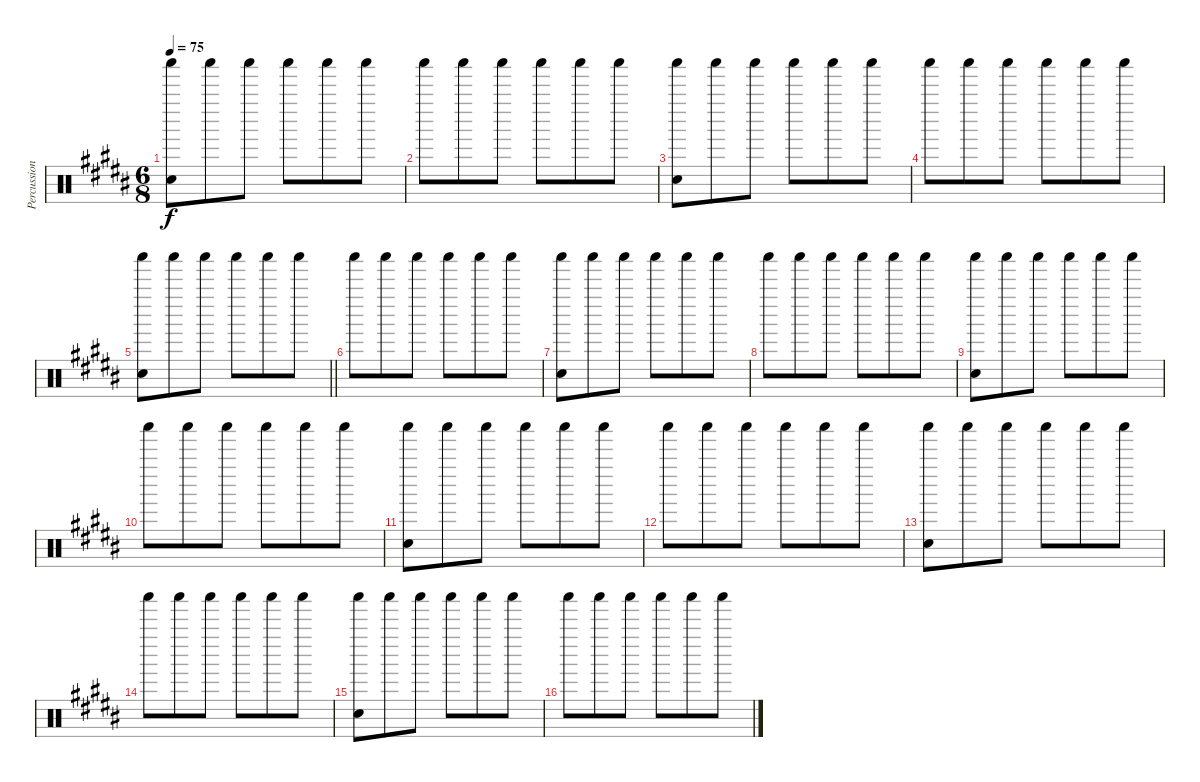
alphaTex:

\track ("Percussion" "Percussion") {instrument percussion}
\staff {score}
\articulation defaults
\ts (6 8)
\tempo 75
\clef neutral
\ks b
("Shaker (hit)" "Hand Clap (hit)").8{dy f} "Shaker (hit)".8 "Shaker (hit)".8 "Shaker (hit)".8 "Shaker (hit)".8 "Shaker (hit)".8 |
"Shaker (hit)".8 "Shaker (hit)".8 "Shaker (hit)".8 "Shaker (hit)".8 "Shaker (hit)".8 "Shaker (hit)".8 |
("Shaker (hit)" "Hand Clap (hit)").8 "Shaker (hit)".8 "Shaker (hit)".8 "Shaker (hit)".8 "Shaker (hit)".8 "Shaker (hit)".8 |
"Shaker (hit)".8 "Shaker (hit)".8 "Shaker (hit)".8 "Shaker (hit)".8 "Shaker (hit)".8 "Shaker (hit)".8 |
\barLineRight lightlight
("Shaker (hit)" "Hand Clap (hit)").8 "Shaker (hit)".8 "Shaker (hit)".8 "Shaker (hit)".8 "Shaker (hit)".8 "Shaker (hit)".8 |
"Shaker (hit)".8 "Shaker (hit)".8 "Shaker (hit)".8 "Shaker (hit)".8 "Shaker (hit)".8 "Shaker (hit)".8 |
("Shaker (hit)" "Hand Clap (hit)").8 "Shaker (hit)".8 "Shaker (hit)".8 "Shaker (hit)".8 "Shaker (hit)".8 "Shaker (hit)".8 |
"Shaker (hit)".8 "Shaker (hit)".8 "Shaker (hit)".8 "Shaker (hit)".8 "Shaker (hit)".8 "Shaker (hit)".8 |
("Shaker (hit)" "Hand Clap (hit)").8 "Shaker (hit)".8 "Shaker (hit)".8 "Shaker (hit)".8 "Shaker (hit)".8 "Shaker (hit)".8 |
"Shaker (hit)".8 "Shaker (hit)".8 "Shaker (hit)".8 "Shaker (hit)".8 "Shaker (hit)".8 "Shaker (hit)".8 |
("Shaker (hit)" "Hand Clap (hit)").8 "Shaker (hit)".8 "Shaker (hit)".8 "Shaker (hit)".8 "Shaker (hit)".8 "Shaker (hit)".8 |
"Shaker (hit)".8 "Shaker (hit)".8 "Shaker (hit)".8 "Shaker (hit)".8 "Shaker (hit)".8 "Shaker (hit)".8 |
("Shaker (hit)" "Hand Clap (hit)").8 "Shaker (hit)".8 "Shaker (hit)".8 "Shaker (hit)".8 "Shaker (hit)".8 "Shaker (hit)".8 |
"Shaker (hit)".8 "Shaker (hit)".8 "Shaker (hit)".8 "Shaker (hit)".8 "Shaker (hit)".8 "Shaker (hit)".8 |
("Shaker (hit)" "Hand Clap (hit)").8 "Shaker (hit)".8 "Shaker (hit)".8 "Shaker (hit)".8 "Shaker (hit)".8 "Shaker (hit)".8 |
"Shaker (hit)".8 "Shaker (hit)".8 "Shaker (hit)".8 "Shaker (hit)".8 "Shaker (hit)".8 "Shaker (hit)".8
